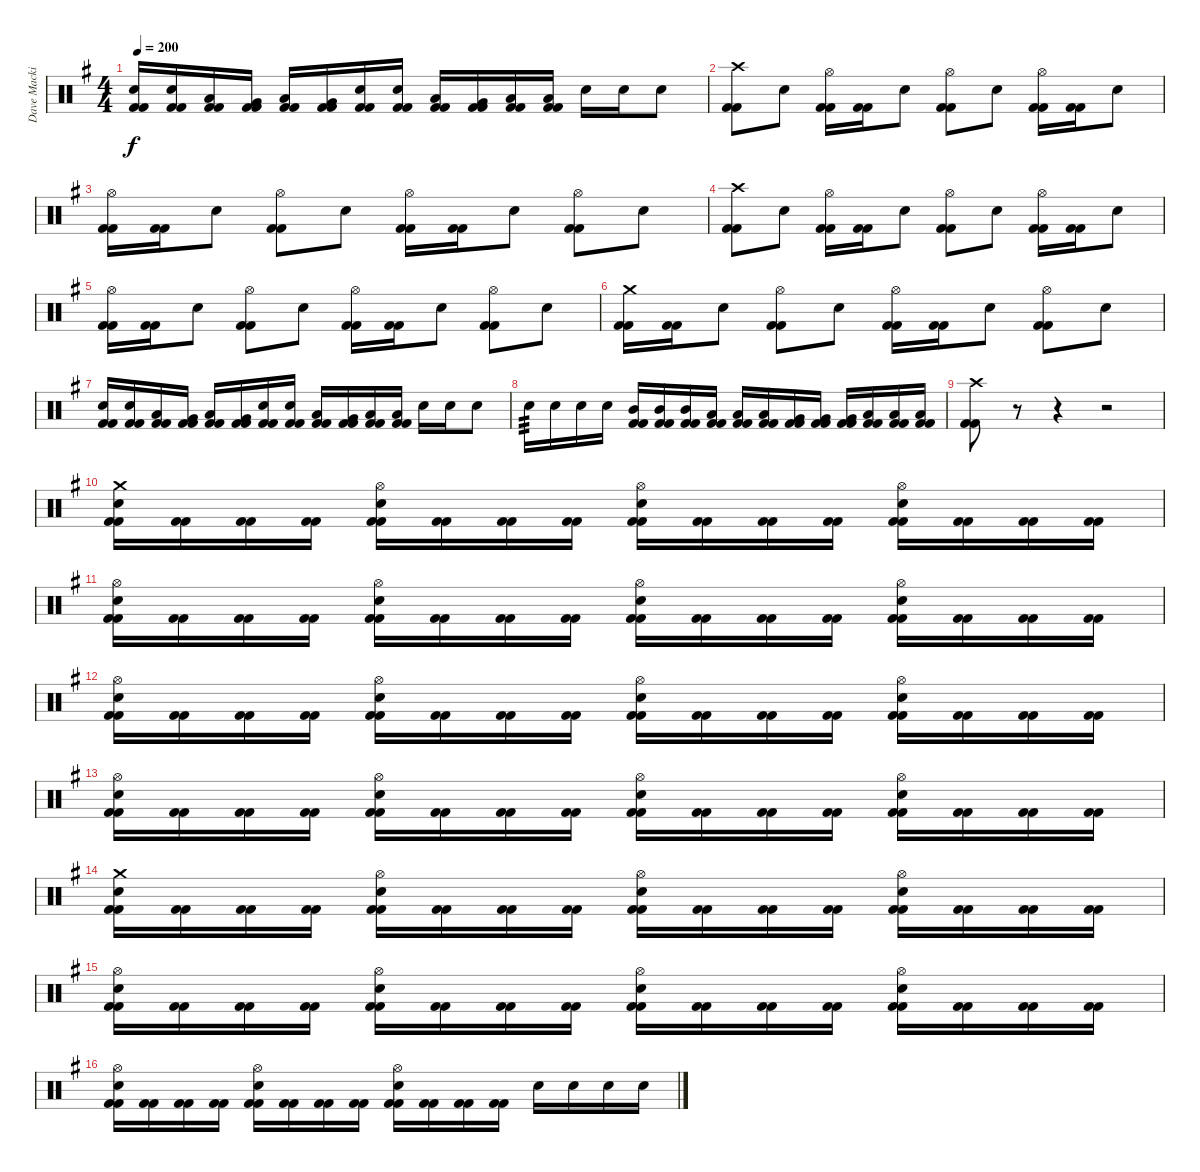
\track ("Dave Mackintosh" "Dave Macki") {instrument percussion}
\staff {score}
\articulation defaults
\ts (4 4)
\tempo 200
\clef neutral
\ks g
("Electric Snare (hit)" "Kick (hit) 2" "Kick (hit) 2").16{dy f} ("Electric Snare (hit)" "Kick (hit) 2" "Kick (hit) 2").16 ("Low Tom (hit)" "Kick (hit) 2" "Kick (hit) 2").16 ("Very Low Tom (hit)" "Kick (hit) 2" "Kick (hit) 2").16 ("Low Tom (hit)" "Kick (hit) 2" "Kick (hit) 2").16 ("Very Low Tom (hit)" "Kick (hit) 2" "Kick (hit) 2").16 ("Electric Snare (hit)" "Kick (hit) 2" "Kick (hit) 2").16 ("Electric Snare (hit)" "Kick (hit) 2" "Kick (hit) 2").16 ("Low Tom (hit)" "Kick (hit) 2" "Kick (hit) 2").16 ("Very Low Tom (hit)" "Kick (hit) 2" "Kick (hit) 2").16 ("Low Floor Tom (hit)" "Kick (hit) 2" "Kick (hit) 2").16 ("Low Floor Tom (hit)" "Kick (hit) 2" "Kick (hit) 2").16 "Electric Snare (hit)".16 "Electric Snare (hit)".16 "Electric Snare (hit)".8 |
("Crash high (hit)" "Kick (hit) 2" "Kick (hit) 2").8 "Electric Snare (hit)".8 ("Hi-Hat (open)" "Kick (hit) 2" "Kick (hit) 2").16 ("Kick (hit) 2" "Kick (hit) 2").16 "Electric Snare (hit)".8 ("Hi-Hat (open)" "Kick (hit) 2" "Kick (hit) 2").8 "Electric Snare (hit)".8 ("Hi-Hat (open)" "Kick (hit) 2" "Kick (hit) 2").16 ("Kick (hit) 2" "Kick (hit) 2").16 "Electric Snare (hit)".8 |
("Hi-Hat (open)" "Kick (hit) 2" "Kick (hit) 2").16 ("Kick (hit) 2" "Kick (hit) 2").16 "Electric Snare (hit)".8 ("Hi-Hat (open)" "Kick (hit) 2" "Kick (hit) 2").8 "Electric Snare (hit)".8 ("Hi-Hat (open)" "Kick (hit) 2" "Kick (hit) 2").16 ("Kick (hit) 2" "Kick (hit) 2").16 "Electric Snare (hit)".8 ("Hi-Hat (open)" "Kick (hit) 2" "Kick (hit) 2").8 "Electric Snare (hit)".8 |
("Crash high (hit)" "Kick (hit) 2" "Kick (hit) 2").8 "Electric Snare (hit)".8 ("Hi-Hat (open)" "Kick (hit) 2" "Kick (hit) 2").16 ("Kick (hit) 2" "Kick (hit) 2").16 "Electric Snare (hit)".8 ("Hi-Hat (open)" "Kick (hit) 2" "Kick (hit) 2").8 "Electric Snare (hit)".8 ("Hi-Hat (open)" "Kick (hit) 2" "Kick (hit) 2").16 ("Kick (hit) 2" "Kick (hit) 2").16 "Electric Snare (hit)".8 |
("Hi-Hat (open)" "Kick (hit) 2" "Kick (hit) 2").16 ("Kick (hit) 2" "Kick (hit) 2").16 "Electric Snare (hit)".8 ("Hi-Hat (open)" "Kick (hit) 2" "Kick (hit) 2").8 "Electric Snare (hit)".8 ("Hi-Hat (open)" "Kick (hit) 2" "Kick (hit) 2").16 ("Kick (hit) 2" "Kick (hit) 2").16 "Electric Snare (hit)".8 ("Hi-Hat (open)" "Kick (hit) 2" "Kick (hit) 2").8 "Electric Snare (hit)".8 |
("Crash medium (hit)" "Kick (hit) 2" "Kick (hit) 2").16 ("Kick (hit) 2" "Kick (hit) 2").16 "Electric Snare (hit)".8 ("Hi-Hat (open)" "Kick (hit) 2" "Kick (hit) 2").8 "Electric Snare (hit)".8 ("Hi-Hat (open)" "Kick (hit) 2" "Kick (hit) 2").16 ("Kick (hit) 2" "Kick (hit) 2").16 "Electric Snare (hit)".8 ("Hi-Hat (open)" "Kick (hit) 2" "Kick (hit) 2").8 "Electric Snare (hit)".8 |
("Electric Snare (hit)" "Kick (hit) 2" "Kick (hit) 2").16 ("Electric Snare (hit)" "Kick (hit) 2" "Kick (hit) 2").16 ("Low Tom (hit)" "Kick (hit) 2" "Kick (hit) 2").16 ("Very Low Tom (hit)" "Kick (hit) 2" "Kick (hit) 2").16 ("Low Tom (hit)" "Kick (hit) 2" "Kick (hit) 2").16 ("Very Low Tom (hit)" "Kick (hit) 2" "Kick (hit) 2").16 ("Electric Snare (hit)" "Kick (hit) 2" "Kick (hit) 2").16 ("Electric Snare (hit)" "Kick (hit) 2" "Kick (hit) 2").16 ("Low Tom (hit)" "Kick (hit) 2" "Kick (hit) 2").16 ("Very Low Tom (hit)" "Kick (hit) 2" "Kick (hit) 2").16 ("Low Floor Tom (hit)" "Kick (hit) 2" "Kick (hit) 2").16 ("Low Floor Tom (hit)" "Kick (hit) 2" "Kick (hit) 2").16 "Electric Snare (hit)".16 "Electric Snare (hit)".16 "Electric Snare (hit)".8 |
"Electric Snare (hit)".16{tp 3} "Electric Snare (hit)".16 "Electric Snare (hit)".16 "Electric Snare (hit)".16 ("Mid Tom (hit)" "Kick (hit) 2" "Kick (hit) 2").16 ("Mid Tom (hit)" "Kick (hit) 2" "Kick (hit) 2").16 ("Mid Tom (hit)" "Kick (hit) 2" "Kick (hit) 2").16 ("Low Tom (hit)" "Kick (hit) 2" "Kick (hit) 2").16 ("Low Tom (hit)" "Kick (hit) 2" "Kick (hit) 2").16 ("Low Tom (hit)" "Kick (hit) 2" "Kick (hit) 2").16 ("Very Low Tom (hit)" "Kick (hit) 2" "Kick (hit) 2").16 ("Very Low Tom (hit)" "Kick (hit) 2" "Kick (hit) 2").16 ("Very Low Tom (hit)" "Kick (hit) 2" "Kick (hit) 2").16 ("Low Floor Tom (hit)" "Kick (hit) 2" "Kick (hit) 2").16 ("Low Floor Tom (hit)" "Kick (hit) 2" "Kick (hit) 2").16 ("Low Floor Tom (hit)" "Kick (hit) 2" "Kick (hit) 2").16 |
("Crash high (hit)" "Kick (hit) 2" "Kick (hit) 2").8 r.8{volume 0} r.4 r.2 |
("Crash medium (hit)" "Electric Snare (hit)" "Kick (hit) 2" "Kick (hit) 2").16{volume 16} ("Kick (hit) 2" "Kick (hit) 2").16 ("Kick (hit) 2" "Kick (hit) 2").16 ("Kick (hit) 2" "Kick (hit) 2").16 ("Hi-Hat (open)" "Electric Snare (hit)" "Kick (hit) 2" "Kick (hit) 2").16 ("Kick (hit) 2" "Kick (hit) 2").16 ("Kick (hit) 2" "Kick (hit) 2").16 ("Kick (hit) 2" "Kick (hit) 2").16 ("Hi-Hat (open)" "Electric Snare (hit)" "Kick (hit) 2" "Kick (hit) 2").16 ("Kick (hit) 2" "Kick (hit) 2").16 ("Kick (hit) 2" "Kick (hit) 2").16 ("Kick (hit) 2" "Kick (hit) 2").16 ("Hi-Hat (open)" "Electric Snare (hit)" "Kick (hit) 2" "Kick (hit) 2").16 ("Kick (hit) 2" "Kick (hit) 2").16 ("Kick (hit) 2" "Kick (hit) 2").16 ("Kick (hit) 2" "Kick (hit) 2").16 |
("Hi-Hat (open)" "Electric Snare (hit)" "Kick (hit) 2" "Kick (hit) 2").16 ("Kick (hit) 2" "Kick (hit) 2").16 ("Kick (hit) 2" "Kick (hit) 2").16 ("Kick (hit) 2" "Kick (hit) 2").16 ("Hi-Hat (open)" "Electric Snare (hit)" "Kick (hit) 2" "Kick (hit) 2").16 ("Kick (hit) 2" "Kick (hit) 2").16 ("Kick (hit) 2" "Kick (hit) 2").16 ("Kick (hit) 2" "Kick (hit) 2").16 ("Hi-Hat (open)" "Electric Snare (hit)" "Kick (hit) 2" "Kick (hit) 2").16 ("Kick (hit) 2" "Kick (hit) 2").16 ("Kick (hit) 2" "Kick (hit) 2").16 ("Kick (hit) 2" "Kick (hit) 2").16 ("Hi-Hat (open)" "Electric Snare (hit)" "Kick (hit) 2" "Kick (hit) 2").16 ("Kick (hit) 2" "Kick (hit) 2").16 ("Kick (hit) 2" "Kick (hit) 2").16 ("Kick (hit) 2" "Kick (hit) 2").16 |
("Hi-Hat (open)" "Electric Snare (hit)" "Kick (hit) 2" "Kick (hit) 2").16 ("Kick (hit) 2" "Kick (hit) 2").16 ("Kick (hit) 2" "Kick (hit) 2").16 ("Kick (hit) 2" "Kick (hit) 2").16 ("Hi-Hat (open)" "Electric Snare (hit)" "Kick (hit) 2" "Kick (hit) 2").16 ("Kick (hit) 2" "Kick (hit) 2").16 ("Kick (hit) 2" "Kick (hit) 2").16 ("Kick (hit) 2" "Kick (hit) 2").16 ("Hi-Hat (open)" "Electric Snare (hit)" "Kick (hit) 2" "Kick (hit) 2").16 ("Kick (hit) 2" "Kick (hit) 2").16 ("Kick (hit) 2" "Kick (hit) 2").16 ("Kick (hit) 2" "Kick (hit) 2").16 ("Hi-Hat (open)" "Electric Snare (hit)" "Kick (hit) 2" "Kick (hit) 2").16 ("Kick (hit) 2" "Kick (hit) 2").16 ("Kick (hit) 2" "Kick (hit) 2").16 ("Kick (hit) 2" "Kick (hit) 2").16 |
("Hi-Hat (open)" "Electric Snare (hit)" "Kick (hit) 2" "Kick (hit) 2").16 ("Kick (hit) 2" "Kick (hit) 2").16 ("Kick (hit) 2" "Kick (hit) 2").16 ("Kick (hit) 2" "Kick (hit) 2").16 ("Hi-Hat (open)" "Electric Snare (hit)" "Kick (hit) 2" "Kick (hit) 2").16 ("Kick (hit) 2" "Kick (hit) 2").16 ("Kick (hit) 2" "Kick (hit) 2").16 ("Kick (hit) 2" "Kick (hit) 2").16 ("Hi-Hat (open)" "Electric Snare (hit)" "Kick (hit) 2" "Kick (hit) 2").16 ("Kick (hit) 2" "Kick (hit) 2").16 ("Kick (hit) 2" "Kick (hit) 2").16 ("Kick (hit) 2" "Kick (hit) 2").16 ("Hi-Hat (open)" "Electric Snare (hit)" "Kick (hit) 2" "Kick (hit) 2").16 ("Kick (hit) 2" "Kick (hit) 2").16 ("Kick (hit) 2" "Kick (hit) 2").16 ("Kick (hit) 2" "Kick (hit) 2").16 |
("Crash medium (hit)" "Electric Snare (hit)" "Kick (hit) 2" "Kick (hit) 2").16 ("Kick (hit) 2" "Kick (hit) 2").16 ("Kick (hit) 2" "Kick (hit) 2").16 ("Kick (hit) 2" "Kick (hit) 2").16 ("Hi-Hat (open)" "Electric Snare (hit)" "Kick (hit) 2" "Kick (hit) 2").16 ("Kick (hit) 2" "Kick (hit) 2").16 ("Kick (hit) 2" "Kick (hit) 2").16 ("Kick (hit) 2" "Kick (hit) 2").16 ("Hi-Hat (open)" "Electric Snare (hit)" "Kick (hit) 2" "Kick (hit) 2").16 ("Kick (hit) 2" "Kick (hit) 2").16 ("Kick (hit) 2" "Kick (hit) 2").16 ("Kick (hit) 2" "Kick (hit) 2").16 ("Hi-Hat (open)" "Electric Snare (hit)" "Kick (hit) 2" "Kick (hit) 2").16 ("Kick (hit) 2" "Kick (hit) 2").16 ("Kick (hit) 2" "Kick (hit) 2").16 ("Kick (hit) 2" "Kick (hit) 2").16 |
("Hi-Hat (open)" "Electric Snare (hit)" "Kick (hit) 2" "Kick (hit) 2").16 ("Kick (hit) 2" "Kick (hit) 2").16 ("Kick (hit) 2" "Kick (hit) 2").16 ("Kick (hit) 2" "Kick (hit) 2").16 ("Hi-Hat (open)" "Electric Snare (hit)" "Kick (hit) 2" "Kick (hit) 2").16 ("Kick (hit) 2" "Kick (hit) 2").16 ("Kick (hit) 2" "Kick (hit) 2").16 ("Kick (hit) 2" "Kick (hit) 2").16 ("Hi-Hat (open)" "Electric Snare (hit)" "Kick (hit) 2" "Kick (hit) 2").16 ("Kick (hit) 2" "Kick (hit) 2").16 ("Kick (hit) 2" "Kick (hit) 2").16 ("Kick (hit) 2" "Kick (hit) 2").16 ("Hi-Hat (open)" "Electric Snare (hit)" "Kick (hit) 2" "Kick (hit) 2").16 ("Kick (hit) 2" "Kick (hit) 2").16 ("Kick (hit) 2" "Kick (hit) 2").16 ("Kick (hit) 2" "Kick (hit) 2").16 |
("Hi-Hat (open)" "Electric Snare (hit)" "Kick (hit) 2" "Kick (hit) 2").16 ("Kick (hit) 2" "Kick (hit) 2").16 ("Kick (hit) 2" "Kick (hit) 2").16 ("Kick (hit) 2" "Kick (hit) 2").16 ("Hi-Hat (open)" "Electric Snare (hit)" "Kick (hit) 2" "Kick (hit) 2").16 ("Kick (hit) 2" "Kick (hit) 2").16 ("Kick (hit) 2" "Kick (hit) 2").16 ("Kick (hit) 2" "Kick (hit) 2").16 ("Hi-Hat (open)" "Electric Snare (hit)" "Kick (hit) 2" "Kick (hit) 2").16 ("Kick (hit) 2" "Kick (hit) 2").16 ("Kick (hit) 2" "Kick (hit) 2").16 ("Kick (hit) 2" "Kick (hit) 2").16 "Electric Snare (hit)".16 "Electric Snare (hit)".16 "Electric Snare (hit)".16 "Electric Snare (hit)".16
